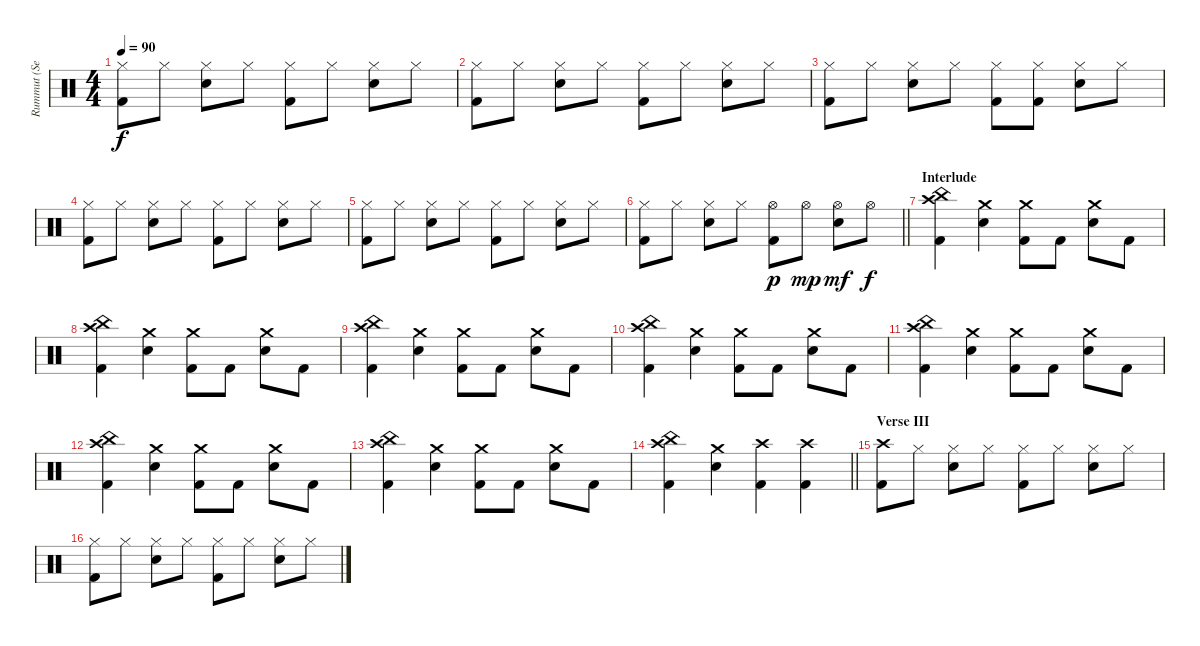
\track ("Rummut (Seppo Pohjolainen)" "Rummut (Se") {instrument percussion}
\staff {score}
\articulation defaults
\ts (4 4)
\tempo 90
\clef neutral
\ks c
("Hi-Hat (closed)" "Kick (hit) 2").8{dy f} "Hi-Hat (closed)".8 ("Hi-Hat (closed)" "Snare (hit) 2").8 "Hi-Hat (closed)".8 ("Hi-Hat (closed)" "Kick (hit) 2").8 "Hi-Hat (closed)".8 ("Hi-Hat (closed)" "Snare (hit) 2").8 "Hi-Hat (closed)".8 |
("Hi-Hat (closed)" "Kick (hit) 2").8 "Hi-Hat (closed)".8 ("Hi-Hat (closed)" "Snare (hit) 2").8 "Hi-Hat (closed)".8 ("Hi-Hat (closed)" "Kick (hit) 2").8 "Hi-Hat (closed)".8 ("Hi-Hat (closed)" "Snare (hit) 2").8 "Hi-Hat (closed)".8 |
("Hi-Hat (closed)" "Kick (hit) 2").8 "Hi-Hat (closed)".8 ("Hi-Hat (closed)" "Snare (hit) 2").8 "Hi-Hat (closed)".8 ("Hi-Hat (closed)" "Kick (hit) 2").8 ("Hi-Hat (closed)" "Kick (hit) 2").8 ("Hi-Hat (closed)" "Snare (hit) 2").8 "Hi-Hat (closed)".8 |
("Hi-Hat (closed)" "Kick (hit) 2").8 "Hi-Hat (closed)".8 ("Hi-Hat (closed)" "Snare (hit) 2").8 "Hi-Hat (closed)".8 ("Hi-Hat (closed)" "Kick (hit) 2").8 "Hi-Hat (closed)".8 ("Hi-Hat (closed)" "Snare (hit) 2").8 "Hi-Hat (closed)".8 |
("Hi-Hat (closed)" "Kick (hit) 2").8 "Hi-Hat (closed)".8 ("Hi-Hat (closed)" "Snare (hit) 2").8 "Hi-Hat (closed)".8 ("Hi-Hat (closed)" "Kick (hit) 2").8 "Hi-Hat (closed)".8 ("Hi-Hat (closed)" "Snare (hit) 2").8 "Hi-Hat (closed)".8 |
\barLineRight lightlight
("Hi-Hat (closed)" "Kick (hit) 2").8 "Hi-Hat (closed)".8 ("Hi-Hat (closed)" "Snare (hit) 2").8 "Hi-Hat (closed)".8 ("Hi-Hat (open)" "Kick (hit) 2").8{dy p} "Hi-Hat (open)".8{dy mp} ("Hi-Hat (open)" "Snare (hit) 2").8{dy mf} "Hi-Hat (open)".8{dy f} |
\section ("" "Interlude")
("China (hit)" "Crash high (hit)" "Kick (hit) 2").4 ("Crash medium (hit)" "Snare (hit) 2").4 ("Crash medium (hit)" "Kick (hit) 2").8 "Kick (hit) 2".8 ("Crash medium (hit)" "Snare (hit) 2").8 "Kick (hit) 2".8 |
("China (hit)" "Crash high (hit)" "Kick (hit) 2").4 ("Crash medium (hit)" "Snare (hit) 2").4 ("Crash medium (hit)" "Kick (hit) 2").8 "Kick (hit) 2".8 ("Crash medium (hit)" "Snare (hit) 2").8 "Kick (hit) 2".8 |
("China (hit)" "Crash high (hit)" "Kick (hit) 2").4 ("Crash medium (hit)" "Snare (hit) 2").4 ("Crash medium (hit)" "Kick (hit) 2").8 "Kick (hit) 2".8 ("Crash medium (hit)" "Snare (hit) 2").8 "Kick (hit) 2".8 |
("China (hit)" "Crash high (hit)" "Kick (hit) 2").4 ("Crash medium (hit)" "Snare (hit) 2").4 ("Crash medium (hit)" "Kick (hit) 2").8 "Kick (hit) 2".8 ("Crash medium (hit)" "Snare (hit) 2").8 "Kick (hit) 2".8 |
("China (hit)" "Crash high (hit)" "Kick (hit) 2").4 ("Crash medium (hit)" "Snare (hit) 2").4 ("Crash medium (hit)" "Kick (hit) 2").8 "Kick (hit) 2".8 ("Crash medium (hit)" "Snare (hit) 2").8 "Kick (hit) 2".8 |
("China (hit)" "Crash high (hit)" "Kick (hit) 2").4 ("Crash medium (hit)" "Snare (hit) 2").4 ("Crash medium (hit)" "Kick (hit) 2").8 "Kick (hit) 2".8 ("Crash medium (hit)" "Snare (hit) 2").8 "Kick (hit) 2".8 |
("China (hit)" "Crash high (hit)" "Kick (hit) 2").4 ("Crash medium (hit)" "Snare (hit) 2").4 ("Crash medium (hit)" "Kick (hit) 2").8 "Kick (hit) 2".8 ("Crash medium (hit)" "Snare (hit) 2").8 "Kick (hit) 2".8 |
\barLineRight lightlight
("China (hit)" "Crash high (hit)" "Kick (hit) 2").4 ("Crash medium (hit)" "Snare (hit) 2").4 ("Crash high (hit)" "Kick (hit) 2").4 ("Crash high (hit)" "Kick (hit) 2").4 |
\section ("" "Verse III")
("Crash high (hit)" "Kick (hit) 2").8 "Hi-Hat (closed)".8 ("Hi-Hat (closed)" "Snare (hit) 2").8 "Hi-Hat (closed)".8 ("Hi-Hat (closed)" "Kick (hit) 2").8 "Hi-Hat (closed)".8 ("Hi-Hat (closed)" "Snare (hit) 2").8 "Hi-Hat (closed)".8 |
("Hi-Hat (closed)" "Kick (hit) 2").8 "Hi-Hat (closed)".8 ("Hi-Hat (closed)" "Snare (hit) 2").8 "Hi-Hat (closed)".8 ("Hi-Hat (closed)" "Kick (hit) 2").8 "Hi-Hat (closed)".8 ("Hi-Hat (closed)" "Snare (hit) 2").8 "Hi-Hat (closed)".8
